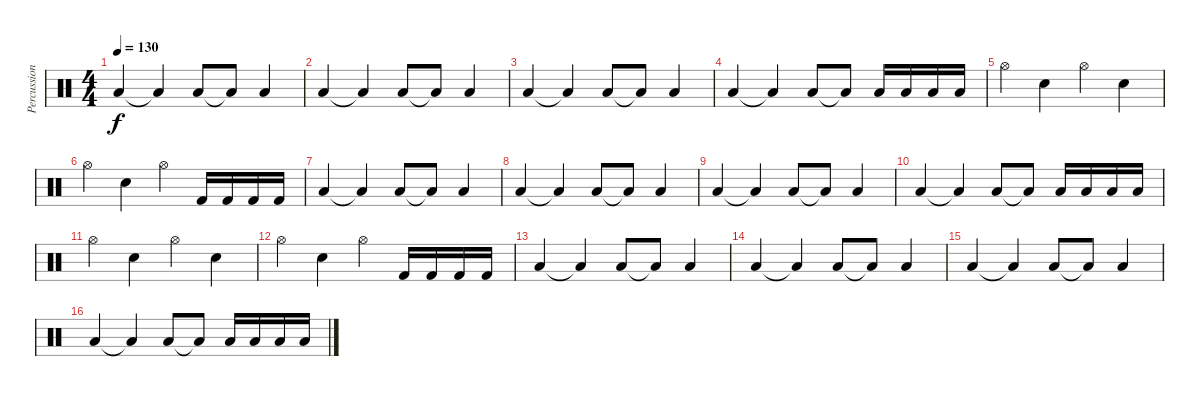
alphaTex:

\track ("Percussioni" "Percussion") {instrument percussion}
\staff {score}
\articulation defaults
\ts (4 4)
\tempo 130
\clef neutral
\ks c "Low Floor Tom (hit)".4{dy f} "Low Floor Tom (hit)"{t}.4 "Low Floor Tom (hit)".8 "Low Floor Tom (hit)"{t}.8 "Low Floor Tom (hit)".4
|
"Low Floor Tom (hit)".4 "Low Floor Tom (hit)"{t}.4 "Low Floor Tom (hit)".8 "Low Floor Tom (hit)"{t}.8 "Low Floor Tom (hit)".4 |
"Low Floor Tom (hit)".4 "Low Floor Tom (hit)"{t}.4 "Low Floor Tom (hit)".8 "Low Floor Tom (hit)"{t}.8 "Low Floor Tom (hit)".4 |
"Low Floor Tom (hit)".4 "Low Floor Tom (hit)"{t}.4 "Low Floor Tom (hit)".8 "Low Floor Tom (hit)"{t}.8 "Low Tom (hit)".16 "Low Tom (hit)".16 "Low Tom (hit)".16 "Low Tom (hit)".16 |
"Hi-Hat (open)".4 "Snare (hit) 2".4 "Hi-Hat (open)".4 "Snare (hit) 2".4 |
"Hi-Hat (open)".4 "Snare (hit) 2".4 "Hi-Hat (open)".4 "Kick (hit) 2".16 "Kick (hit) 2".16 "Kick (hit) 2".16 "Kick (hit) 2".16 |
"Low Floor Tom (hit)".4 "Low Floor Tom (hit)"{t}.4 "Low Floor Tom (hit)".8 "Low Floor Tom (hit)"{t}.8 "Low Floor Tom (hit)".4 |
"Low Floor Tom (hit)".4 "Low Floor Tom (hit)"{t}.4 "Low Floor Tom (hit)".8 "Low Floor Tom (hit)"{t}.8 "Low Floor Tom (hit)".4 |
"Low Floor Tom (hit)".4 "Low Floor Tom (hit)"{t}.4 "Low Floor Tom (hit)".8 "Low Floor Tom (hit)"{t}.8 "Low Floor Tom (hit)".4 |
"Low Floor Tom (hit)".4 "Low Floor Tom (hit)"{t}.4 "Low Floor Tom (hit)".8 "Low Floor Tom (hit)"{t}.8 "Low Tom (hit)".16 "Low Tom (hit)".16 "Low Tom (hit)".16 "Low Tom (hit)".16 |
"Hi-Hat (open)".4 "Snare (hit) 2".4 "Hi-Hat (open)".4 "Snare (hit) 2".4 |
"Hi-Hat (open)".4 "Snare (hit) 2".4 "Hi-Hat (open)".4 "Kick (hit) 2".16 "Kick (hit) 2".16 "Kick (hit) 2".16 "Kick (hit) 2".16 |
"Low Floor Tom (hit)".4 "Low Floor Tom (hit)"{t}.4 "Low Floor Tom (hit)".8 "Low Floor Tom (hit)"{t}.8 "Low Floor Tom (hit)".4 |
"Low Floor Tom (hit)".4 "Low Floor Tom (hit)"{t}.4 "Low Floor Tom (hit)".8 "Low Floor Tom (hit)"{t}.8 "Low Floor Tom (hit)".4 |
"Low Floor Tom (hit)".4 "Low Floor Tom (hit)"{t}.4 "Low Floor Tom (hit)".8 "Low Floor Tom (hit)"{t}.8 "Low Floor Tom (hit)".4 |
"Low Floor Tom (hit)".4 "Low Floor Tom (hit)"{t}.4 "Low Floor Tom (hit)".8 "Low Floor Tom (hit)"{t}.8 "Low Tom (hit)".16 "Low Tom (hit)".16 "Low Tom (hit)".16 "Low Tom (hit)".16
